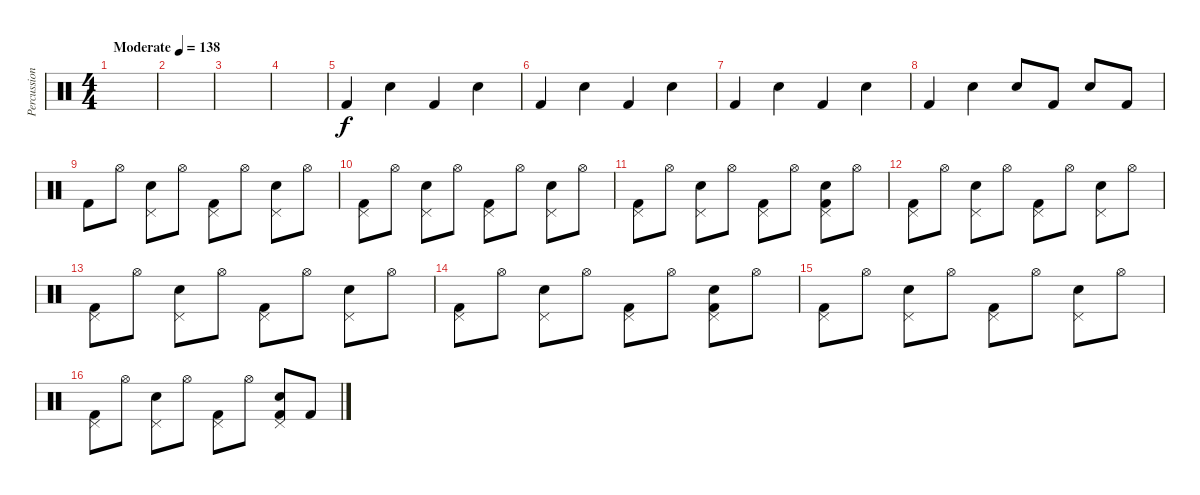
\track ("Percussion" "Percussion") {instrument percussion}
\staff {score}
\articulation defaults
\ts (4 4)
\tempo (138 "Moderate")
\clef neutral
\ks c
|
|
|
|
"Kick (hit) 2".4 "Snare (hit) 2".4 "Kick (hit) 2".4 "Snare (hit) 2".4 |
"Kick (hit) 2".4 "Snare (hit) 2".4 "Kick (hit) 2".4 "Snare (hit) 2".4 |
"Kick (hit) 2".4 "Snare (hit) 2".4 "Kick (hit) 2".4 "Snare (hit) 2".4 |
"Kick (hit) 2".4 "Snare (hit) 2".4 "Snare (hit) 2".8 "Kick (hit) 2".8 "Snare (hit) 2".8 "Kick (hit) 2".8 |
"Kick (hit) 2".8 "Hi-Hat (open)".8 ("Pedal Hi-Hat (hit)" "Snare (hit) 2").8 "Hi-Hat (open)".8 ("Pedal Hi-Hat (hit)" "Kick (hit) 2").8 "Hi-Hat (open)".8 ("Pedal Hi-Hat (hit)" "Snare (hit) 2").8 "Hi-Hat (open)".8 |
("Pedal Hi-Hat (hit)" "Kick (hit) 2").8 "Hi-Hat (open)".8 ("Pedal Hi-Hat (hit)" "Snare (hit) 2").8 "Hi-Hat (open)".8 ("Pedal Hi-Hat (hit)" "Kick (hit) 2").8 "Hi-Hat (open)".8 ("Pedal Hi-Hat (hit)" "Snare (hit) 2").8 "Hi-Hat (open)".8 |
("Pedal Hi-Hat (hit)" "Kick (hit) 2").8 "Hi-Hat (open)".8 ("Pedal Hi-Hat (hit)" "Snare (hit) 2").8 "Hi-Hat (open)".8 ("Pedal Hi-Hat (hit)" "Kick (hit) 2").8 "Hi-Hat (open)".8 ("Pedal Hi-Hat (hit)" "Snare (hit) 2" "Kick (hit) 2").8 "Hi-Hat (open)".8 |
("Pedal Hi-Hat (hit)" "Kick (hit) 2").8 "Hi-Hat (open)".8 ("Pedal Hi-Hat (hit)" "Snare (hit) 2").8 "Hi-Hat (open)".8 ("Pedal Hi-Hat (hit)" "Kick (hit) 2").8 "Hi-Hat (open)".8 ("Pedal Hi-Hat (hit)" "Snare (hit) 2").8 "Hi-Hat (open)".8 |
("Pedal Hi-Hat (hit)" "Kick (hit) 2").8 "Hi-Hat (open)".8 ("Pedal Hi-Hat (hit)" "Snare (hit) 2").8 "Hi-Hat (open)".8 ("Pedal Hi-Hat (hit)" "Kick (hit) 2").8 "Hi-Hat (open)".8 ("Pedal Hi-Hat (hit)" "Snare (hit) 2").8 "Hi-Hat (open)".8 |
("Pedal Hi-Hat (hit)" "Kick (hit) 2").8 "Hi-Hat (open)".8 ("Pedal Hi-Hat (hit)" "Snare (hit) 2").8 "Hi-Hat (open)".8 ("Pedal Hi-Hat (hit)" "Kick (hit) 2").8 "Hi-Hat (open)".8 ("Pedal Hi-Hat (hit)" "Snare (hit) 2" "Kick (hit) 2").8 "Hi-Hat (open)".8 |
("Pedal Hi-Hat (hit)" "Kick (hit) 2").8 "Hi-Hat (open)".8 ("Pedal Hi-Hat (hit)" "Snare (hit) 2").8 "Hi-Hat (open)".8 ("Pedal Hi-Hat (hit)" "Kick (hit) 2").8 "Hi-Hat (open)".8 ("Pedal Hi-Hat (hit)" "Snare (hit) 2").8 "Hi-Hat (open)".8 |
("Pedal Hi-Hat (hit)" "Kick (hit) 2").8 "Hi-Hat (open)".8 ("Pedal Hi-Hat (hit)" "Snare (hit) 2").8 "Hi-Hat (open)".8 ("Pedal Hi-Hat (hit)" "Kick (hit) 2").8 "Hi-Hat (open)".8 ("Pedal Hi-Hat (hit)" "Snare (hit) 2" "Kick (hit) 2").8 "Kick (hit) 2".8
